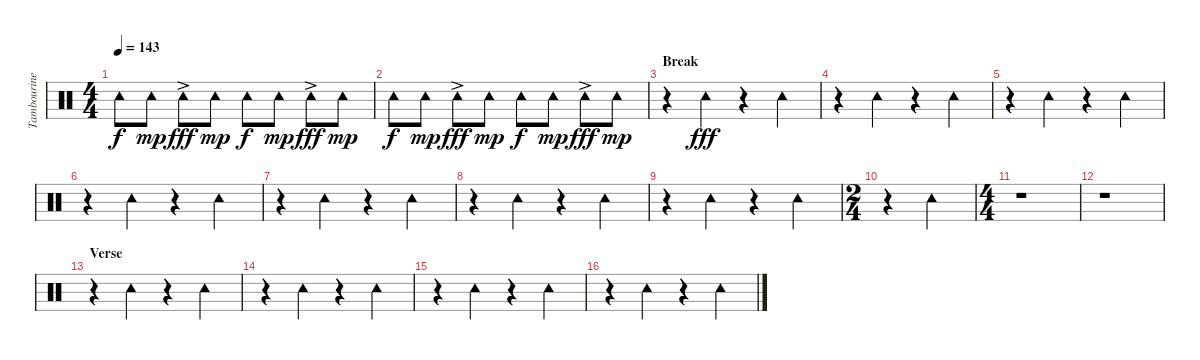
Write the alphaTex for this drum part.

\track ("Tambourine" "Tambourine") {instrument percussion}
\staff {score}
\articulation defaults
\ts (4 4)
\tempo 143
\clef neutral
\ks c "Tambourine (hit)".8{dy f} "Tambourine (hit)".8{dy mp} "Tambourine (hit)"{ac}.8{dy fff} "Tambourine (hit)".8{dy mp} "Tambourine (hit)".8{dy f} "Tambourine (hit)".8{dy mp} "Tambourine (hit)"{ac}.8{dy fff} "Tambourine (hit)".8{dy mp}
|
"Tambourine (hit)".8{dy f} "Tambourine (hit)".8{dy mp} "Tambourine (hit)"{ac}.8{dy fff} "Tambourine (hit)".8{dy mp} "Tambourine (hit)".8{dy f} "Tambourine (hit)".8{dy mp} "Tambourine (hit)"{ac}.8{dy fff} "Tambourine (hit)".8{dy mp} |
\section ("" "Break")
r.4 "Tambourine (hit)".4{dy fff} r.4 "Tambourine (hit)".4 |
r.4 "Tambourine (hit)".4 r.4 "Tambourine (hit)".4 |
r.4 "Tambourine (hit)".4 r.4 "Tambourine (hit)".4 |
r.4 "Tambourine (hit)".4 r.4 "Tambourine (hit)".4 |
r.4 "Tambourine (hit)".4 r.4 "Tambourine (hit)".4 |
r.4 "Tambourine (hit)".4 r.4 "Tambourine (hit)".4 |
r.4 "Tambourine (hit)".4 r.4 "Tambourine (hit)".4 |
\ts (2 4)
r.4 "Tambourine (hit)".4 |
\ts (4 4)
r.1 |
r.1 |
\section ("" "Verse")
r.4 "Tambourine (hit)".4 r.4 "Tambourine (hit)".4 |
r.4 "Tambourine (hit)".4 r.4 "Tambourine (hit)".4 |
r.4 "Tambourine (hit)".4 r.4 "Tambourine (hit)".4 |
r.4 "Tambourine (hit)".4 r.4 "Tambourine (hit)".4
